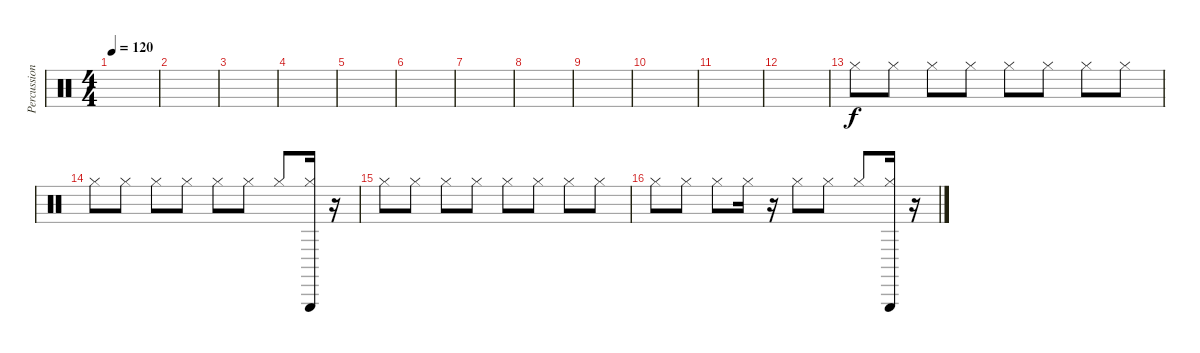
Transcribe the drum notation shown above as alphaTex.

\track ("Percussion" "Percussion") {instrument percussion}
\staff {score}
\articulation defaults
\ts (4 4)
\tempo 120
\clef neutral
\ks c
|
|
|
|
|
|
|
|
|
|
|
|
"Hi-Hat (closed)".8 "Hi-Hat (closed)".8 "Hi-Hat (closed)".8 "Hi-Hat (closed)".8 "Hi-Hat (closed)".8 "Hi-Hat (closed)".8 "Hi-Hat (closed)".8 "Hi-Hat (closed)".8 |
"Hi-Hat (closed)".8 "Hi-Hat (closed)".8 "Hi-Hat (closed)".8 "Hi-Hat (closed)".8 "Hi-Hat (closed)".8 "Hi-Hat (closed)".8 "Hi-Hat (closed)".8 ("Hi-Hat (closed)" "Triangle (hit)").16 r.16 |
"Hi-Hat (closed)".8 "Hi-Hat (closed)".8 "Hi-Hat (closed)".8 "Hi-Hat (closed)".8 "Hi-Hat (closed)".8 "Hi-Hat (closed)".8 "Hi-Hat (closed)".8 "Hi-Hat (closed)".8 |
"Hi-Hat (closed)".8 "Hi-Hat (closed)".8 "Hi-Hat (closed)".8 "Hi-Hat (closed)".16 r.16 "Hi-Hat (closed)".8 "Hi-Hat (closed)".8 "Hi-Hat (closed)".8 ("Hi-Hat (closed)" "Triangle (hit)").16 r.16
